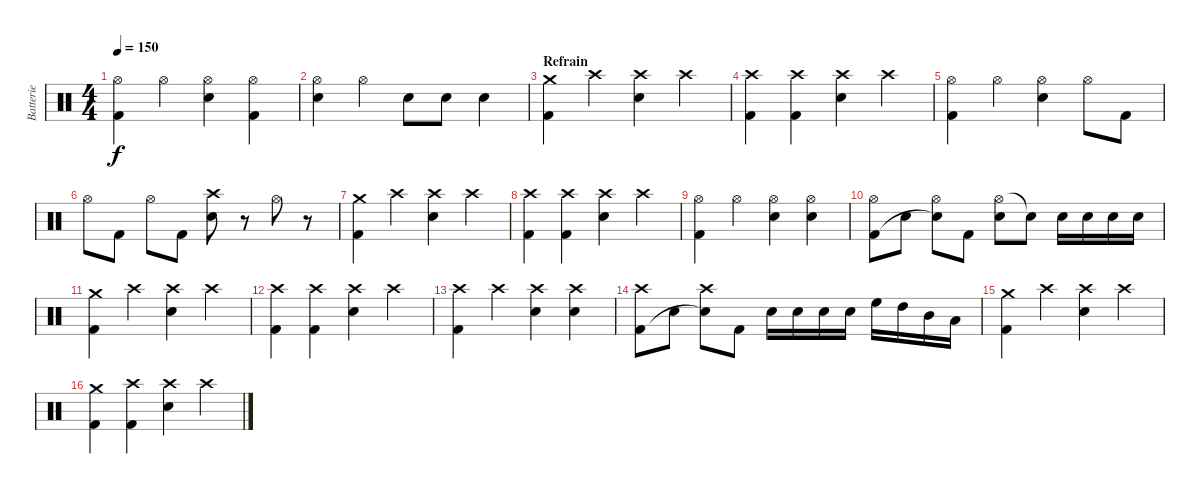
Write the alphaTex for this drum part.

\track ("Batterie" "Batterie") {instrument percussion}
\staff {score}
\articulation defaults
\ts (4 4)
\tempo 150
\clef neutral
\ks c
("Hi-Hat (open)" "Kick (hit) 2").4{dy f} "Hi-Hat (open)".4 ("Hi-Hat (open)" "Electric Snare (hit)").4 ("Hi-Hat (open)" "Kick (hit) 2").4 |
("Hi-Hat (open)" "Electric Snare (hit)").4 "Hi-Hat (open)".4 "Electric Snare (hit)".8 "Electric Snare (hit)".8 "Electric Snare (hit)".4 |
\section ("" "Refrain")
("Crash medium (hit)" "Kick (hit) 2").4 "Crash high (hit)".4 ("Crash high (hit)" "Electric Snare (hit)").4 "Crash high (hit)".4 |
("Crash high (hit)" "Kick (hit) 2").4 ("Crash high (hit)" "Kick (hit) 2").4 ("Crash high (hit)" "Electric Snare (hit)").4 "Crash high (hit)".4 |
("Hi-Hat (open)" "Kick (hit) 2").4 "Hi-Hat (open)".4 ("Hi-Hat (open)" "Electric Snare (hit)").4 "Hi-Hat (open)".8 "Kick (hit) 2".8 |
"Hi-Hat (open)".8 "Kick (hit) 2".8 "Hi-Hat (open)".8 "Kick (hit) 2".8 ("Crash high (hit)" "Electric Snare (hit)").8 r.8 "Hi-Hat (open)".8 r.8 |
("Crash medium (hit)" "Kick (hit) 2").4 "Crash high (hit)".4 ("Crash high (hit)" "Electric Snare (hit)").4 "Crash high (hit)".4 |
("Crash high (hit)" "Kick (hit) 2").4 ("Crash high (hit)" "Kick (hit) 2").4 ("Crash high (hit)" "Electric Snare (hit)").4 "Crash high (hit)".4 |
("Hi-Hat (open)" "Kick (hit) 2").4 "Hi-Hat (open)".4 ("Hi-Hat (open)" "Electric Snare (hit)").4 ("Hi-Hat (open)" "Electric Snare (hit)").4 |
("Hi-Hat (open)" "Kick (hit) 2").8 "Electric Snare (hit)".8 ("Hi-Hat (open)" "Electric Snare (hit)"{t}).8 "Kick (hit) 2".8 ("Hi-Hat (open)" "Electric Snare (hit)").8 "Electric Snare (hit)"{t}.8 "Electric Snare (hit)".16 "Electric Snare (hit)".16 "Electric Snare (hit)".16 "Electric Snare (hit)".16 |
("Crash medium (hit)" "Kick (hit) 2").4 "Crash high (hit)".4 ("Crash high (hit)" "Electric Snare (hit)").4 "Crash high (hit)".4 |
("Crash high (hit)" "Kick (hit) 2").4 ("Crash high (hit)" "Kick (hit) 2").4 ("Crash high (hit)" "Electric Snare (hit)").4 "Crash high (hit)".4 |
("Crash high (hit)" "Kick (hit) 2").4 "Crash high (hit)".4 ("Crash high (hit)" "Electric Snare (hit)").4 ("Crash high (hit)" "Electric Snare (hit)").4 |
("Crash high (hit)" "Kick (hit) 2").8 "Electric Snare (hit)".8 ("Crash high (hit)" "Snare (hit)"{t}).8 "Kick (hit) 2".8 "Electric Snare (hit)".16 "Electric Snare (hit)".16 "Electric Snare (hit)".16 "Electric Snare (hit)".16 "High Floor Tom (hit)".16 "High Tom (hit)".16 "Mid Tom (hit)".16 "Low Tom (hit)".16 |
("Crash medium (hit)" "Kick (hit) 2").4 "Crash high (hit)".4 ("Crash high (hit)" "Electric Snare (hit)").4 "Crash high (hit)".4 |
("Crash medium (hit)" "Kick (hit) 2").4 ("Crash high (hit)" "Kick (hit) 2").4 ("Crash high (hit)" "Electric Snare (hit)").4 "Crash high (hit)".4
